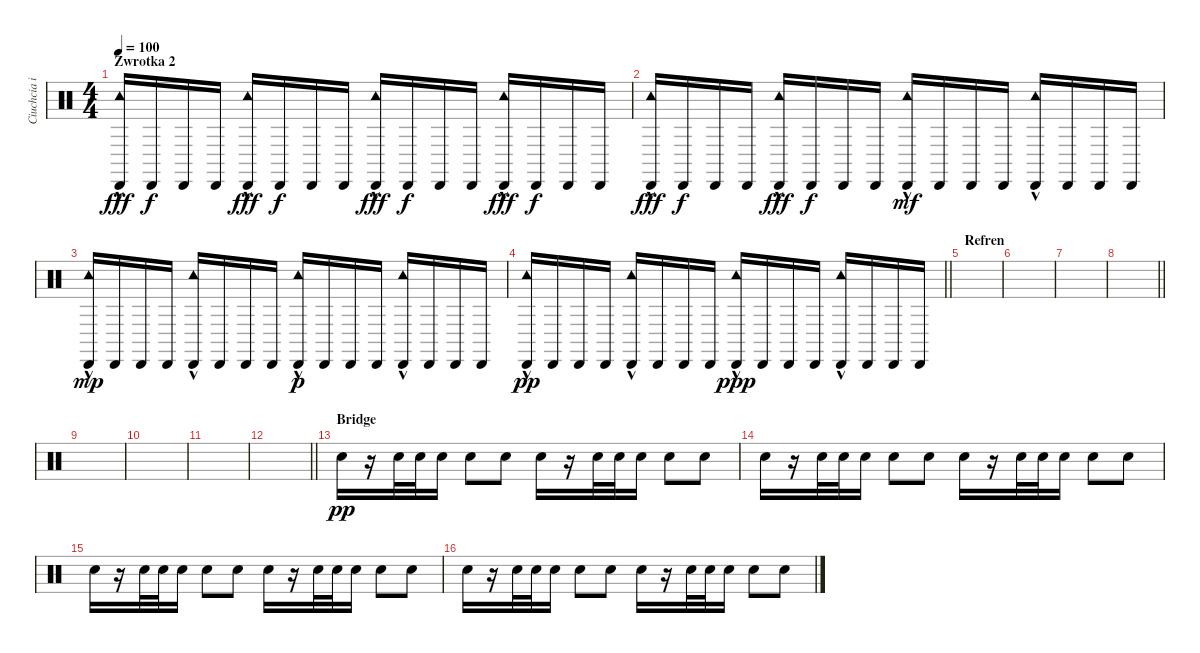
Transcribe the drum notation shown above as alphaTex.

\track ("Ciuchcia i Werbel" "Ciuchcia i") {instrument percussion}
\staff {score}
\articulation defaults
\ts (4 4)
\section ("" "Zwrotka 2")
\tempo 100
\clef neutral
\ks c
("Cabasa (hit)" "Tambourine (hit)"{hac}).16{dy fff balance 7} "Cabasa (hit)".16{dy f} "Cabasa (hit)".16 "Cabasa (hit)".16 ("Cabasa (hit)" "Tambourine (hit)"{hac}).16{dy fff} "Cabasa (hit)".16{dy f} "Cabasa (hit)".16 "Cabasa (hit)".16 ("Cabasa (hit)" "Tambourine (hit)"{hac}).16{dy fff balance 6} "Cabasa (hit)".16{dy f} "Cabasa (hit)".16 "Cabasa (hit)".16 ("Cabasa (hit)" "Tambourine (hit)"{hac}).16{dy fff} "Cabasa (hit)".16{dy f} "Cabasa (hit)".16 "Cabasa (hit)".16 |
("Cabasa (hit)" "Tambourine (hit)"{hac}).16{dy fff balance 5} "Cabasa (hit)".16{dy f} "Cabasa (hit)".16 "Cabasa (hit)".16 ("Cabasa (hit)" "Tambourine (hit)"{hac}).16{dy fff} "Cabasa (hit)".16{dy f} "Cabasa (hit)".16 "Cabasa (hit)".16 ("Cabasa (hit)" "Tambourine (hit)"{hac}).16{dy mf balance 4} "Cabasa (hit)".16 "Cabasa (hit)".16 "Cabasa (hit)".16 ("Cabasa (hit)" "Tambourine (hit)"{hac}).16 "Cabasa (hit)".16 "Cabasa (hit)".16 "Cabasa (hit)".16 |
("Cabasa (hit)" "Tambourine (hit)"{hac}).16{dy mp balance 3} "Cabasa (hit)".16 "Cabasa (hit)".16 "Cabasa (hit)".16 ("Cabasa (hit)" "Tambourine (hit)"{hac}).16 "Cabasa (hit)".16 "Cabasa (hit)".16 "Cabasa (hit)".16 ("Cabasa (hit)" "Tambourine (hit)"{hac}).16{dy p balance 2} "Cabasa (hit)".16 "Cabasa (hit)".16 "Cabasa (hit)".16 ("Cabasa (hit)" "Tambourine (hit)"{hac}).16 "Cabasa (hit)".16 "Cabasa (hit)".16 "Cabasa (hit)".16 |
\barLineRight lightlight
("Cabasa (hit)" "Tambourine (hit)"{hac}).16{dy pp balance 1} "Cabasa (hit)".16 "Cabasa (hit)".16 "Cabasa (hit)".16 ("Cabasa (hit)" "Tambourine (hit)"{hac}).16 "Cabasa (hit)".16 "Cabasa (hit)".16 "Cabasa (hit)".16 ("Cabasa (hit)" "Tambourine (hit)"{hac}).16{dy ppp balance 0} "Cabasa (hit)".16 "Cabasa (hit)".16 "Cabasa (hit)".16 ("Cabasa (hit)" "Tambourine (hit)"{hac}).16 "Cabasa (hit)".16 "Cabasa (hit)".16 "Cabasa (hit)".16 |
\section ("" "Refren")
|
|
|
\barLineRight lightlight
|
|
|
|
\barLineRight lightlight
|
\section ("" "Bridge")
"Snare (hit) 2".16{dy pp balance 8} r.16 "Snare (hit) 2".32 "Snare (hit) 2".32 "Snare (hit) 2".16 "Snare (hit) 2".8 "Snare (hit) 2".8 "Snare (hit) 2".16 r.16 "Snare (hit) 2".32 "Snare (hit) 2".32 "Snare (hit) 2".16 "Snare (hit) 2".8 "Snare (hit) 2".8 |
"Snare (hit) 2".16 r.16 "Snare (hit) 2".32 "Snare (hit) 2".32 "Snare (hit) 2".16 "Snare (hit) 2".8 "Snare (hit) 2".8 "Snare (hit) 2".16 r.16 "Snare (hit) 2".32 "Snare (hit) 2".32 "Snare (hit) 2".16 "Snare (hit) 2".8 "Snare (hit) 2".8 |
"Snare (hit) 2".16 r.16 "Snare (hit) 2".32 "Snare (hit) 2".32 "Snare (hit) 2".16 "Snare (hit) 2".8 "Snare (hit) 2".8 "Snare (hit) 2".16 r.16 "Snare (hit) 2".32 "Snare (hit) 2".32 "Snare (hit) 2".16 "Snare (hit) 2".8 "Snare (hit) 2".8 |
"Snare (hit) 2".16 r.16 "Snare (hit) 2".32 "Snare (hit) 2".32 "Snare (hit) 2".16 "Snare (hit) 2".8 "Snare (hit) 2".8 "Snare (hit) 2".16 r.16 "Snare (hit) 2".32 "Snare (hit) 2".32 "Snare (hit) 2".16 "Snare (hit) 2".8 "Snare (hit) 2".8
